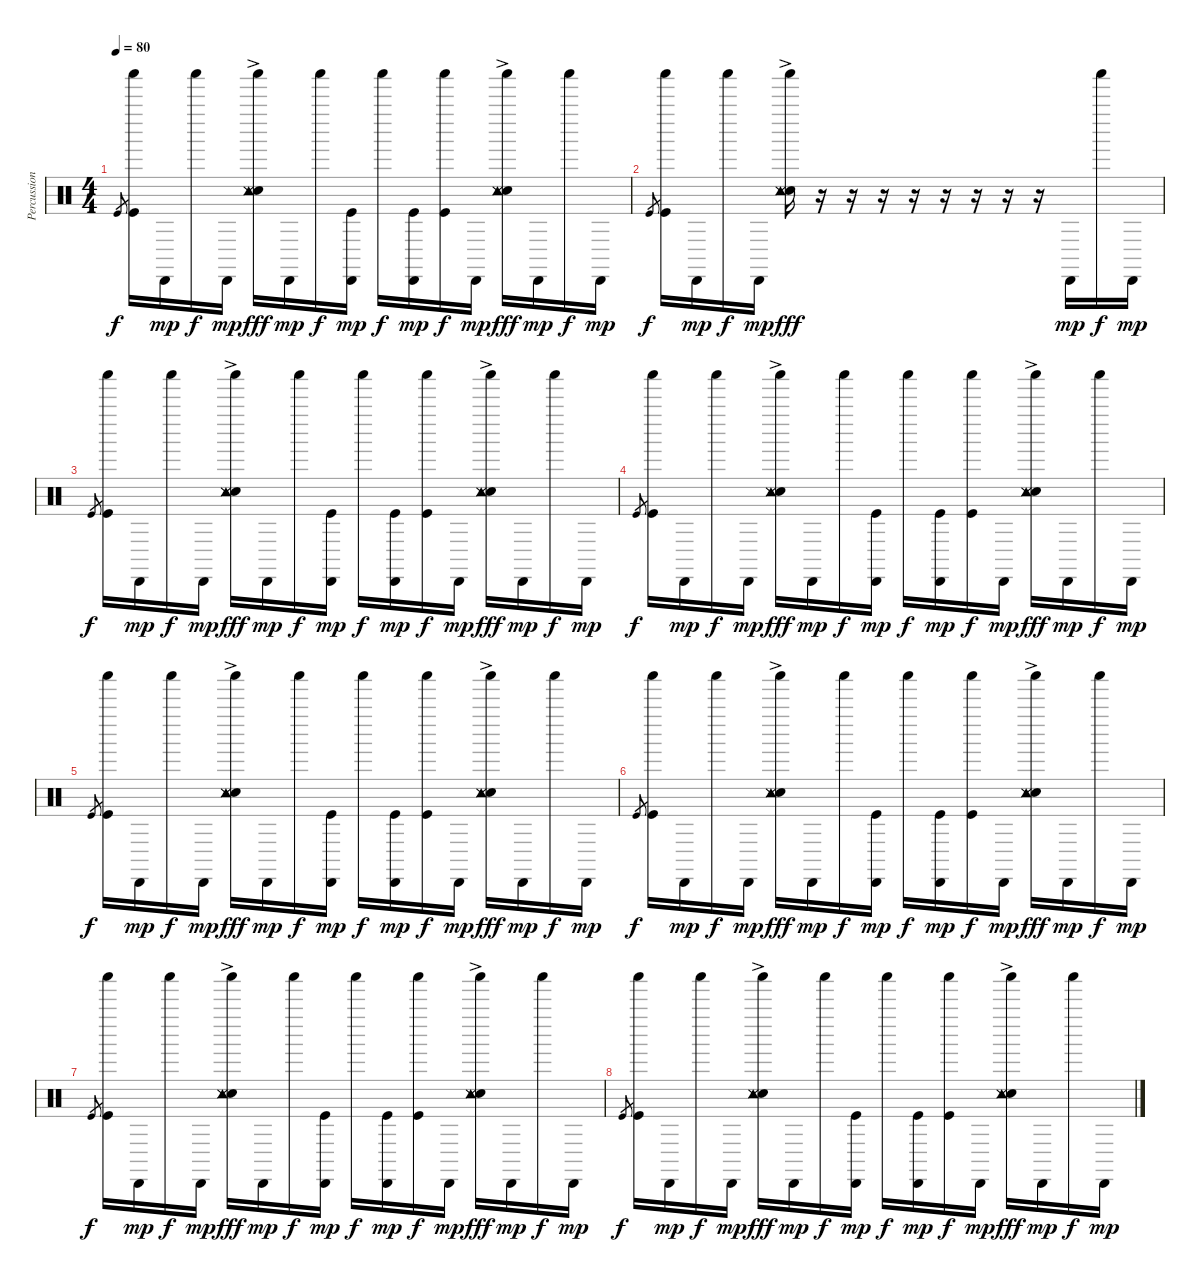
\track ("Percussions" "Percussion") {instrument percussion}
\staff {score}
\articulation defaults
\ts (4 4)
\tempo 80
\clef neutral
\ks c "Kick (hit)".8{gr dy f}
("Shaker (hit)" "Kick (hit)").16 "Cabasa (hit)".16{dy mp} "Shaker (hit)".16{dy f} "Cabasa (hit)".16{dy mp} ("Shaker (hit)" "Electric Snare (hit)" "Tambourine (hit)"{ac} "Snare (side stick) 3" "Metronome (hit)").16{dy fff} "Cabasa (hit)".16{dy mp} "Shaker (hit)".16{dy f} ("Cabasa (hit)" "Kick (hit)").16{dy mp} "Shaker (hit)".16{dy f} ("Cabasa (hit)" "Kick (hit)").16{dy mp} ("Shaker (hit)" "Kick (hit)").16{dy f} "Cabasa (hit)".16{dy mp} ("Shaker (hit)" "Electric Snare (hit)" "Tambourine (hit)"{ac} "Snare (side stick) 3" "Metronome (hit)").16{dy fff} "Cabasa (hit)".16{dy mp} "Shaker (hit)".16{dy f} "Cabasa (hit)".16{dy mp} |
"Kick (hit)".8{gr dy f} ("Shaker (hit)" "Kick (hit)").16 "Cabasa (hit)".16{dy mp} "Shaker (hit)".16{dy f} "Cabasa (hit)".16{dy mp} ("Shaker (hit)" "Electric Snare (hit)" "Tambourine (hit)"{ac} "Snare (side stick) 3" "Metronome (hit)").16{dy fff} r.16 r.16 r.16 r.16 r.16 r.16 r.16 r.16 "Cabasa (hit)".16{dy mp} "Shaker (hit)".16{dy f} "Cabasa (hit)".16{dy mp} |
"Kick (hit)".8{gr dy f} ("Shaker (hit)" "Kick (hit)").16 "Cabasa (hit)".16{dy mp} "Shaker (hit)".16{dy f} "Cabasa (hit)".16{dy mp} ("Shaker (hit)" "Electric Snare (hit)" "Tambourine (hit)"{ac} "Snare (side stick) 3" "Metronome (hit)").16{dy fff} "Cabasa (hit)".16{dy mp} "Shaker (hit)".16{dy f} ("Cabasa (hit)" "Kick (hit)").16{dy mp} "Shaker (hit)".16{dy f} ("Cabasa (hit)" "Kick (hit)").16{dy mp} ("Shaker (hit)" "Kick (hit)").16{dy f} "Cabasa (hit)".16{dy mp} ("Shaker (hit)" "Electric Snare (hit)" "Tambourine (hit)"{ac} "Snare (side stick) 3" "Metronome (hit)").16{dy fff} "Cabasa (hit)".16{dy mp} "Shaker (hit)".16{dy f} "Cabasa (hit)".16{dy mp} |
"Kick (hit)".8{gr dy f} ("Shaker (hit)" "Kick (hit)").16 "Cabasa (hit)".16{dy mp} "Shaker (hit)".16{dy f} "Cabasa (hit)".16{dy mp} ("Shaker (hit)" "Electric Snare (hit)" "Tambourine (hit)"{ac} "Snare (side stick) 3" "Metronome (hit)").16{dy fff} "Cabasa (hit)".16{dy mp} "Shaker (hit)".16{dy f} ("Cabasa (hit)" "Kick (hit)").16{dy mp} "Shaker (hit)".16{dy f} ("Cabasa (hit)" "Kick (hit)").16{dy mp} ("Shaker (hit)" "Kick (hit)").16{dy f} "Cabasa (hit)".16{dy mp} ("Shaker (hit)" "Electric Snare (hit)" "Tambourine (hit)"{ac} "Snare (side stick) 3" "Metronome (hit)").16{dy fff} "Cabasa (hit)".16{dy mp} "Shaker (hit)".16{dy f} "Cabasa (hit)".16{dy mp} |
"Kick (hit)".8{gr dy f} ("Shaker (hit)" "Kick (hit)").16 "Cabasa (hit)".16{dy mp} "Shaker (hit)".16{dy f} "Cabasa (hit)".16{dy mp} ("Shaker (hit)" "Electric Snare (hit)" "Tambourine (hit)"{ac} "Snare (side stick) 3" "Metronome (hit)").16{dy fff} "Cabasa (hit)".16{dy mp} "Shaker (hit)".16{dy f} ("Cabasa (hit)" "Kick (hit)").16{dy mp} "Shaker (hit)".16{dy f} ("Cabasa (hit)" "Kick (hit)").16{dy mp} ("Shaker (hit)" "Kick (hit)").16{dy f} "Cabasa (hit)".16{dy mp} ("Shaker (hit)" "Electric Snare (hit)" "Tambourine (hit)"{ac} "Snare (side stick) 3" "Metronome (hit)").16{dy fff} "Cabasa (hit)".16{dy mp} "Shaker (hit)".16{dy f} "Cabasa (hit)".16{dy mp} |
"Kick (hit)".8{gr dy f} ("Shaker (hit)" "Kick (hit)").16 "Cabasa (hit)".16{dy mp} "Shaker (hit)".16{dy f} "Cabasa (hit)".16{dy mp} ("Shaker (hit)" "Electric Snare (hit)" "Tambourine (hit)"{ac} "Snare (side stick) 3" "Metronome (hit)").16{dy fff} "Cabasa (hit)".16{dy mp} "Shaker (hit)".16{dy f} ("Cabasa (hit)" "Kick (hit)").16{dy mp} "Shaker (hit)".16{dy f} ("Cabasa (hit)" "Kick (hit)").16{dy mp} ("Shaker (hit)" "Kick (hit)").16{dy f} "Cabasa (hit)".16{dy mp} ("Shaker (hit)" "Electric Snare (hit)" "Tambourine (hit)"{ac} "Snare (side stick) 3" "Metronome (hit)").16{dy fff} "Cabasa (hit)".16{dy mp} "Shaker (hit)".16{dy f} "Cabasa (hit)".16{dy mp} |
"Kick (hit)".8{gr dy f} ("Shaker (hit)" "Kick (hit)").16 "Cabasa (hit)".16{dy mp} "Shaker (hit)".16{dy f} "Cabasa (hit)".16{dy mp} ("Shaker (hit)" "Electric Snare (hit)" "Tambourine (hit)"{ac} "Snare (side stick) 3" "Metronome (hit)").16{dy fff} "Cabasa (hit)".16{dy mp} "Shaker (hit)".16{dy f} ("Cabasa (hit)" "Kick (hit)").16{dy mp} "Shaker (hit)".16{dy f} ("Cabasa (hit)" "Kick (hit)").16{dy mp} ("Shaker (hit)" "Kick (hit)").16{dy f} "Cabasa (hit)".16{dy mp} ("Shaker (hit)" "Electric Snare (hit)" "Tambourine (hit)"{ac} "Snare (side stick) 3" "Metronome (hit)").16{dy fff} "Cabasa (hit)".16{dy mp} "Shaker (hit)".16{dy f} "Cabasa (hit)".16{dy mp} |
"Kick (hit)".8{gr dy f} ("Shaker (hit)" "Kick (hit)").16 "Cabasa (hit)".16{dy mp} "Shaker (hit)".16{dy f} "Cabasa (hit)".16{dy mp} ("Shaker (hit)" "Electric Snare (hit)" "Tambourine (hit)"{ac} "Snare (side stick) 3" "Metronome (hit)").16{dy fff} "Cabasa (hit)".16{dy mp} "Shaker (hit)".16{dy f} ("Cabasa (hit)" "Kick (hit)").16{dy mp} "Shaker (hit)".16{dy f} ("Cabasa (hit)" "Kick (hit)").16{dy mp} ("Shaker (hit)" "Kick (hit)").16{dy f} "Cabasa (hit)".16{dy mp} ("Shaker (hit)" "Electric Snare (hit)" "Tambourine (hit)"{ac} "Snare (side stick) 3" "Metronome (hit)").16{dy fff} "Cabasa (hit)".16{dy mp} "Shaker (hit)".16{dy f} "Cabasa (hit)".16{dy mp}
